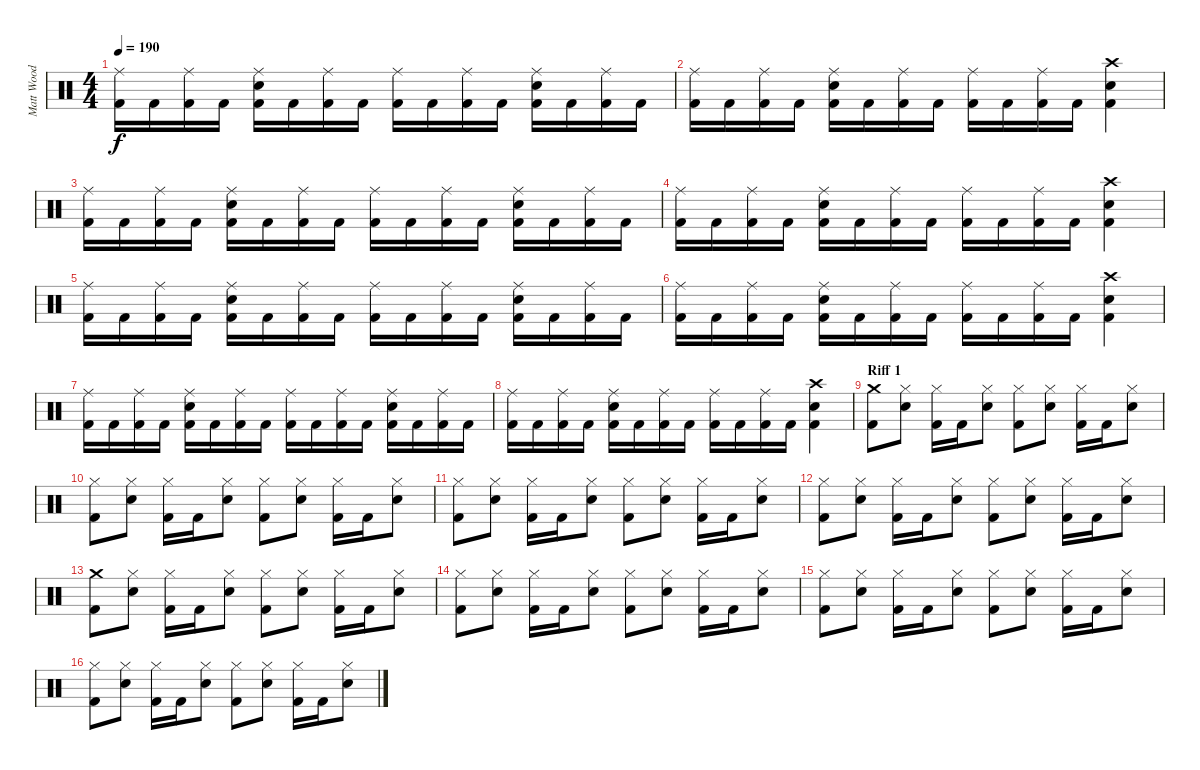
\track ("Matt Wood" "Matt Wood") {instrument percussion}
\staff {score}
\articulation defaults
\ts (4 4)
\tempo 190
\clef neutral
\ks c
("Ride (middle)" "Kick (hit) 2").16{dy f} "Kick (hit) 2".16 ("Ride (middle)" "Kick (hit) 2").16 "Kick (hit) 2".16 ("Ride (middle)" "Snare (hit) 2" "Kick (hit) 2").16 "Kick (hit) 2".16 ("Ride (middle)" "Kick (hit) 2").16 "Kick (hit) 2".16 ("Ride (middle)" "Kick (hit) 2").16 "Kick (hit) 2".16 ("Ride (middle)" "Kick (hit) 2").16 "Kick (hit) 2".16 ("Ride (middle)" "Snare (hit) 2" "Kick (hit) 2").16 "Kick (hit) 2".16 ("Ride (middle)" "Kick (hit) 2").16 "Kick (hit) 2".16 |
("Ride (middle)" "Kick (hit) 2").16 "Kick (hit) 2".16 ("Ride (middle)" "Kick (hit) 2").16 "Kick (hit) 2".16 ("Ride (middle)" "Snare (hit) 2" "Kick (hit) 2").16 "Kick (hit) 2".16 ("Ride (middle)" "Kick (hit) 2").16 "Kick (hit) 2".16 ("Ride (middle)" "Kick (hit) 2").16 "Kick (hit) 2".16 ("Ride (middle)" "Kick (hit) 2").16 "Kick (hit) 2".16 ("Crash high (hit)" "Snare (hit) 2" "Kick (hit) 2").4 |
("Ride (middle)" "Kick (hit) 2").16 "Kick (hit) 2".16 ("Ride (middle)" "Kick (hit) 2").16 "Kick (hit) 2".16 ("Ride (middle)" "Snare (hit) 2" "Kick (hit) 2").16 "Kick (hit) 2".16 ("Ride (middle)" "Kick (hit) 2").16 "Kick (hit) 2".16 ("Ride (middle)" "Kick (hit) 2").16 "Kick (hit) 2".16 ("Ride (middle)" "Kick (hit) 2").16 "Kick (hit) 2".16 ("Ride (middle)" "Snare (hit) 2" "Kick (hit) 2").16 "Kick (hit) 2".16 ("Ride (middle)" "Kick (hit) 2").16 "Kick (hit) 2".16 |
("Ride (middle)" "Kick (hit) 2").16 "Kick (hit) 2".16 ("Ride (middle)" "Kick (hit) 2").16 "Kick (hit) 2".16 ("Ride (middle)" "Snare (hit) 2" "Kick (hit) 2").16 "Kick (hit) 2".16 ("Ride (middle)" "Kick (hit) 2").16 "Kick (hit) 2".16 ("Ride (middle)" "Kick (hit) 2").16 "Kick (hit) 2".16 ("Ride (middle)" "Kick (hit) 2").16 "Kick (hit) 2".16 ("Crash high (hit)" "Snare (hit) 2" "Kick (hit) 2").4 |
("Ride (middle)" "Kick (hit) 2").16 "Kick (hit) 2".16 ("Ride (middle)" "Kick (hit) 2").16 "Kick (hit) 2".16 ("Ride (middle)" "Snare (hit) 2" "Kick (hit) 2").16 "Kick (hit) 2".16 ("Ride (middle)" "Kick (hit) 2").16 "Kick (hit) 2".16 ("Ride (middle)" "Kick (hit) 2").16 "Kick (hit) 2".16 ("Ride (middle)" "Kick (hit) 2").16 "Kick (hit) 2".16 ("Ride (middle)" "Snare (hit) 2" "Kick (hit) 2").16 "Kick (hit) 2".16 ("Ride (middle)" "Kick (hit) 2").16 "Kick (hit) 2".16 |
("Ride (middle)" "Kick (hit) 2").16 "Kick (hit) 2".16 ("Ride (middle)" "Kick (hit) 2").16 "Kick (hit) 2".16 ("Ride (middle)" "Snare (hit) 2" "Kick (hit) 2").16 "Kick (hit) 2".16 ("Ride (middle)" "Kick (hit) 2").16 "Kick (hit) 2".16 ("Ride (middle)" "Kick (hit) 2").16 "Kick (hit) 2".16 ("Ride (middle)" "Kick (hit) 2").16 "Kick (hit) 2".16 ("Crash high (hit)" "Snare (hit) 2" "Kick (hit) 2").4 |
("Ride (middle)" "Kick (hit) 2").16 "Kick (hit) 2".16 ("Ride (middle)" "Kick (hit) 2").16 "Kick (hit) 2".16 ("Ride (middle)" "Snare (hit) 2" "Kick (hit) 2").16 "Kick (hit) 2".16 ("Ride (middle)" "Kick (hit) 2").16 "Kick (hit) 2".16 ("Ride (middle)" "Kick (hit) 2").16 "Kick (hit) 2".16 ("Ride (middle)" "Kick (hit) 2").16 "Kick (hit) 2".16 ("Ride (middle)" "Snare (hit) 2" "Kick (hit) 2").16 "Kick (hit) 2".16 ("Ride (middle)" "Kick (hit) 2").16 "Kick (hit) 2".16 |
("Ride (middle)" "Kick (hit) 2").16 "Kick (hit) 2".16 ("Ride (middle)" "Kick (hit) 2").16 "Kick (hit) 2".16 ("Ride (middle)" "Snare (hit) 2" "Kick (hit) 2").16 "Kick (hit) 2".16 ("Ride (middle)" "Kick (hit) 2").16 "Kick (hit) 2".16 ("Ride (middle)" "Kick (hit) 2").16 "Kick (hit) 2".16 ("Ride (middle)" "Kick (hit) 2").16 "Kick (hit) 2".16 ("Crash high (hit)" "Snare (hit) 2" "Kick (hit) 2").4 |
\section ("" "Riff 1")
("Crash medium (hit)" "Kick (hit) 2").8 ("Hi-Hat (closed)" "Snare (hit) 2").8 ("Hi-Hat (closed)" "Kick (hit) 2").16 "Kick (hit) 2".16 ("Hi-Hat (closed)" "Snare (hit) 2").8 ("Hi-Hat (closed)" "Kick (hit) 2").8 ("Hi-Hat (closed)" "Snare (hit) 2").8 ("Hi-Hat (closed)" "Kick (hit) 2").16 "Kick (hit) 2".16 ("Hi-Hat (closed)" "Snare (hit) 2").8 |
("Hi-Hat (closed)" "Kick (hit) 2").8 ("Hi-Hat (closed)" "Snare (hit) 2").8 ("Hi-Hat (closed)" "Kick (hit) 2").16 "Kick (hit) 2".16 ("Hi-Hat (closed)" "Snare (hit) 2").8 ("Hi-Hat (closed)" "Kick (hit) 2").8 ("Hi-Hat (closed)" "Snare (hit) 2").8 ("Hi-Hat (closed)" "Kick (hit) 2").16 "Kick (hit) 2".16 ("Hi-Hat (closed)" "Snare (hit) 2").8 |
("Hi-Hat (closed)" "Kick (hit) 2").8 ("Hi-Hat (closed)" "Snare (hit) 2").8 ("Hi-Hat (closed)" "Kick (hit) 2").16 "Kick (hit) 2".16 ("Hi-Hat (closed)" "Snare (hit) 2").8 ("Hi-Hat (closed)" "Kick (hit) 2").8 ("Hi-Hat (closed)" "Snare (hit) 2").8 ("Hi-Hat (closed)" "Kick (hit) 2").16 "Kick (hit) 2".16 ("Hi-Hat (closed)" "Snare (hit) 2").8 |
("Hi-Hat (closed)" "Kick (hit) 2").8 ("Hi-Hat (closed)" "Snare (hit) 2").8 ("Hi-Hat (closed)" "Kick (hit) 2").16 "Kick (hit) 2".16 ("Hi-Hat (closed)" "Snare (hit) 2").8 ("Hi-Hat (closed)" "Kick (hit) 2").8 ("Hi-Hat (closed)" "Snare (hit) 2").8 ("Hi-Hat (closed)" "Kick (hit) 2").16 "Kick (hit) 2".16 ("Hi-Hat (closed)" "Snare (hit) 2").8 |
("Crash medium (hit)" "Kick (hit) 2").8 ("Hi-Hat (closed)" "Snare (hit) 2").8 ("Hi-Hat (closed)" "Kick (hit) 2").16 "Kick (hit) 2".16 ("Hi-Hat (closed)" "Snare (hit) 2").8 ("Hi-Hat (closed)" "Kick (hit) 2").8 ("Hi-Hat (closed)" "Snare (hit) 2").8 ("Hi-Hat (closed)" "Kick (hit) 2").16 "Kick (hit) 2".16 ("Hi-Hat (closed)" "Snare (hit) 2").8 |
("Hi-Hat (closed)" "Kick (hit) 2").8 ("Hi-Hat (closed)" "Snare (hit) 2").8 ("Hi-Hat (closed)" "Kick (hit) 2").16 "Kick (hit) 2".16 ("Hi-Hat (closed)" "Snare (hit) 2").8 ("Hi-Hat (closed)" "Kick (hit) 2").8 ("Hi-Hat (closed)" "Snare (hit) 2").8 ("Hi-Hat (closed)" "Kick (hit) 2").16 "Kick (hit) 2".16 ("Hi-Hat (closed)" "Snare (hit) 2").8 |
("Hi-Hat (closed)" "Kick (hit) 2").8 ("Hi-Hat (closed)" "Snare (hit) 2").8 ("Hi-Hat (closed)" "Kick (hit) 2").16 "Kick (hit) 2".16 ("Hi-Hat (closed)" "Snare (hit) 2").8 ("Hi-Hat (closed)" "Kick (hit) 2").8 ("Hi-Hat (closed)" "Snare (hit) 2").8 ("Hi-Hat (closed)" "Kick (hit) 2").16 "Kick (hit) 2".16 ("Hi-Hat (closed)" "Snare (hit) 2").8 |
("Hi-Hat (closed)" "Kick (hit) 2").8 ("Hi-Hat (closed)" "Snare (hit) 2").8 ("Hi-Hat (closed)" "Kick (hit) 2").16 "Kick (hit) 2".16 ("Hi-Hat (closed)" "Snare (hit) 2").8 ("Hi-Hat (closed)" "Kick (hit) 2").8 ("Hi-Hat (closed)" "Snare (hit) 2").8 ("Hi-Hat (closed)" "Kick (hit) 2").16 "Kick (hit) 2".16 ("Hi-Hat (closed)" "Snare (hit) 2").8
